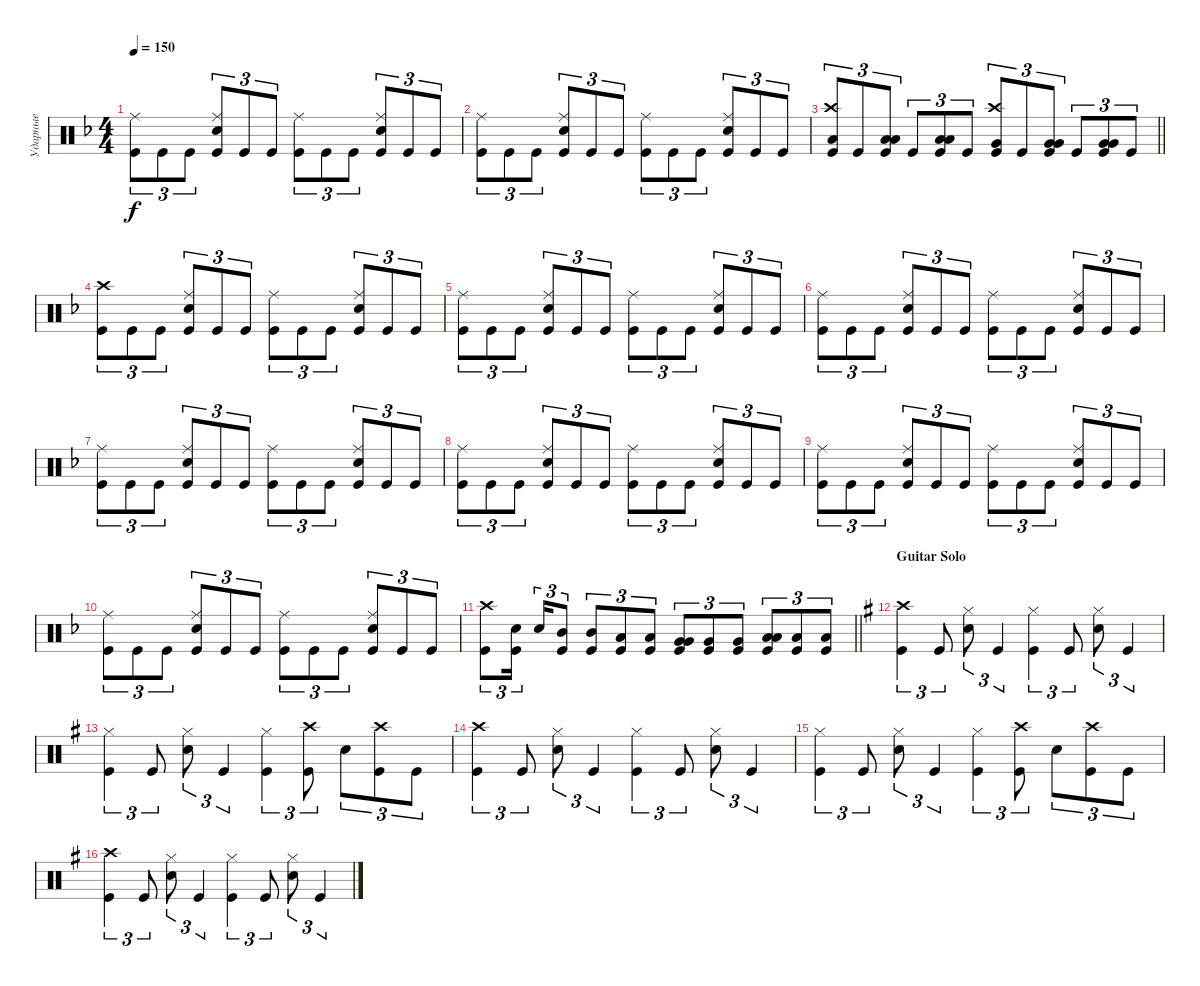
\track ("Ударные" "Ударные") {instrument percussion}
\staff {score}
\articulation defaults
\ts (4 4)
\tempo 150
\clef neutral
\ks dminor
("Kick (hit)" "Ride (middle)").8{tu (3 2) dy f} "Kick (hit)".8{tu (3 2)} "Kick (hit)".8{tu (3 2)} ("Snare (hit) 2" "Kick (hit)" "Ride (middle)").8{tu (3 2)} "Kick (hit)".8{tu (3 2)} "Kick (hit)".8{tu (3 2)} ("Kick (hit)" "Ride (middle)").8{tu (3 2)} "Kick (hit)".8{tu (3 2)} "Kick (hit)".8{tu (3 2)} ("Kick (hit)" "Snare (hit) 2" "Ride (middle)").8{tu (3 2)} "Kick (hit)".8{tu (3 2)} "Kick (hit)".8{tu (3 2)} |
("Kick (hit)" "Ride (middle)").8{tu (3 2)} "Kick (hit)".8{tu (3 2)} "Kick (hit)".8{tu (3 2)} ("Snare (hit) 2" "Kick (hit)" "Ride (middle)").8{tu (3 2)} "Kick (hit)".8{tu (3 2)} "Kick (hit)".8{tu (3 2)} ("Kick (hit)" "Ride (middle)").8{tu (3 2)} "Kick (hit)".8{tu (3 2)} "Kick (hit)".8{tu (3 2)} ("Kick (hit)" "Snare (hit) 2" "Ride (middle)").8{tu (3 2)} "Kick (hit)".8{tu (3 2)} "Kick (hit)".8{tu (3 2)} |
\barLineRight lightlight
("Kick (hit)" "Crash high (hit)" "Low Tom (hit)").8{tu (3 2)} "Kick (hit)".8{tu (3 2)} ("Kick (hit)" "Low Tom (hit)" "Low Tom (hit)").8{tu (3 2) bd 240} "Kick (hit)".8{tu (3 2)} ("Kick (hit)" "Low Tom (hit)" "Low Tom (hit)").8{tu (3 2) bd 240} "Kick (hit)".8{tu (3 2)} ("Kick (hit)" "Crash high (hit)" "Very Low Tom (hit)").8{tu (3 2)} "Kick (hit)".8{tu (3 2)} ("Kick (hit)" "Very Low Tom (hit)" "Very Low Tom (hit)").8{tu (3 2) bd 240} "Kick (hit)".8{tu (3 2)} ("Kick (hit)" "Very Low Tom (hit)" "Very Low Tom (hit)").8{tu (3 2) bd 240} "Kick (hit)".8{tu (3 2)} |
("Kick (hit)" "Crash high (hit)").8{tu (3 2)} "Kick (hit)".8{tu (3 2)} "Kick (hit)".8{tu (3 2)} ("Snare (hit) 2" "Kick (hit)" "Ride (middle)").8{tu (3 2)} "Kick (hit)".8{tu (3 2)} "Kick (hit)".8{tu (3 2)} ("Kick (hit)" "Ride (middle)").8{tu (3 2)} "Kick (hit)".8{tu (3 2)} "Kick (hit)".8{tu (3 2)} ("Kick (hit)" "Snare (hit) 2" "Ride (middle)").8{tu (3 2)} "Kick (hit)".8{tu (3 2)} "Kick (hit)".8{tu (3 2)} |
("Kick (hit)" "Ride (middle)").8{tu (3 2)} "Kick (hit)".8{tu (3 2)} "Kick (hit)".8{tu (3 2)} ("Snare (hit) 2" "Kick (hit)" "Ride (middle)").8{tu (3 2)} "Kick (hit)".8{tu (3 2)} "Kick (hit)".8{tu (3 2)} ("Kick (hit)" "Ride (middle)").8{tu (3 2)} "Kick (hit)".8{tu (3 2)} "Kick (hit)".8{tu (3 2)} ("Kick (hit)" "Snare (hit) 2" "Ride (middle)").8{tu (3 2)} "Kick (hit)".8{tu (3 2)} "Kick (hit)".8{tu (3 2)} |
("Kick (hit)" "Ride (middle)").8{tu (3 2)} "Kick (hit)".8{tu (3 2)} "Kick (hit)".8{tu (3 2)} ("Snare (hit) 2" "Kick (hit)" "Ride (middle)").8{tu (3 2)} "Kick (hit)".8{tu (3 2)} "Kick (hit)".8{tu (3 2)} ("Kick (hit)" "Ride (middle)").8{tu (3 2)} "Kick (hit)".8{tu (3 2)} "Kick (hit)".8{tu (3 2)} ("Kick (hit)" "Snare (hit) 2" "Ride (middle)").8{tu (3 2)} "Kick (hit)".8{tu (3 2)} "Kick (hit)".8{tu (3 2)} |
("Kick (hit)" "Ride (middle)").8{tu (3 2)} "Kick (hit)".8{tu (3 2)} "Kick (hit)".8{tu (3 2)} ("Snare (hit) 2" "Kick (hit)" "Ride (middle)").8{tu (3 2)} "Kick (hit)".8{tu (3 2)} "Kick (hit)".8{tu (3 2)} ("Kick (hit)" "Ride (middle)").8{tu (3 2)} "Kick (hit)".8{tu (3 2)} "Kick (hit)".8{tu (3 2)} ("Kick (hit)" "Snare (hit) 2" "Ride (middle)").8{tu (3 2)} "Kick (hit)".8{tu (3 2)} "Kick (hit)".8{tu (3 2)} |
("Kick (hit)" "Ride (middle)").8{tu (3 2)} "Kick (hit)".8{tu (3 2)} "Kick (hit)".8{tu (3 2)} ("Snare (hit) 2" "Kick (hit)" "Ride (middle)").8{tu (3 2)} "Kick (hit)".8{tu (3 2)} "Kick (hit)".8{tu (3 2)} ("Kick (hit)" "Ride (middle)").8{tu (3 2)} "Kick (hit)".8{tu (3 2)} "Kick (hit)".8{tu (3 2)} ("Kick (hit)" "Snare (hit) 2" "Ride (middle)").8{tu (3 2)} "Kick (hit)".8{tu (3 2)} "Kick (hit)".8{tu (3 2)} |
("Kick (hit)" "Ride (middle)").8{tu (3 2)} "Kick (hit)".8{tu (3 2)} "Kick (hit)".8{tu (3 2)} ("Snare (hit) 2" "Kick (hit)" "Ride (middle)").8{tu (3 2)} "Kick (hit)".8{tu (3 2)} "Kick (hit)".8{tu (3 2)} ("Kick (hit)" "Ride (middle)").8{tu (3 2)} "Kick (hit)".8{tu (3 2)} "Kick (hit)".8{tu (3 2)} ("Kick (hit)" "Snare (hit) 2" "Ride (middle)").8{tu (3 2)} "Kick (hit)".8{tu (3 2)} "Kick (hit)".8{tu (3 2)} |
("Kick (hit)" "Ride (middle)").8{tu (3 2)} "Kick (hit)".8{tu (3 2)} "Kick (hit)".8{tu (3 2)} ("Snare (hit) 2" "Kick (hit)" "Ride (middle)").8{tu (3 2)} "Kick (hit)".8{tu (3 2)} "Kick (hit)".8{tu (3 2)} ("Kick (hit)" "Ride (middle)").8{tu (3 2)} "Kick (hit)".8{tu (3 2)} "Kick (hit)".8{tu (3 2)} ("Kick (hit)" "Snare (hit) 2" "Ride (middle)").8{tu (3 2)} "Kick (hit)".8{tu (3 2)} "Kick (hit)".8{tu (3 2)} |
\barLineRight lightlight
("Kick (hit)" "Crash high (hit)").8{tu (3 2)} ("Kick (hit)" "Snare (hit) 2").16{tu (3 2) beam splitsecondary} "Snare (hit) 2".16{tu (3 2)} ("Mid Tom (hit)" "Kick (hit)").8{tu (3 2)} ("Mid Tom (hit)" "Kick (hit)").8{tu (3 2)} ("Low Tom (hit)" "Kick (hit)").8{tu (3 2)} ("Low Tom (hit)" "Kick (hit)").8{tu (3 2)} ("Kick (hit)" "Very Low Tom (hit)" "Very Low Tom (hit)").8{tu (3 2) bd 240} ("Kick (hit)" "Very Low Tom (hit)").8{tu (3 2)} ("Kick (hit)" "Very Low Tom (hit)").8{tu (3 2)} ("Kick (hit)" "Low Floor Tom (hit)" "Low Floor Tom (hit)").8{tu (3 2) bd 240} ("Kick (hit)" "Low Floor Tom (hit)").8{tu (3 2)} ("Kick (hit)" "Low Floor Tom (hit)").8{tu (3 2)} |
\section ("" "Guitar Solo")
\ks eminor
("Kick (hit)" "Crash high (hit)").4{tu (3 2)} "Kick (hit)".8{tu (3 2)} ("Snare (hit) 2" "Hi-Hat (closed)").8{tu (3 2)} "Kick (hit)".4{tu (3 2)} ("Kick (hit)" "Hi-Hat (closed)").4{tu (3 2)} "Kick (hit)".8{tu (3 2)} ("Snare (hit) 2" "Hi-Hat (closed)").8{tu (3 2)} "Kick (hit)".4{tu (3 2)} |
("Kick (hit)" "Hi-Hat (closed)").4{tu (3 2)} "Kick (hit)".8{tu (3 2)} ("Snare (hit) 2" "Hi-Hat (closed)").8{tu (3 2)} "Kick (hit)".4{tu (3 2)} ("Kick (hit)" "Hi-Hat (closed)").4{tu (3 2)} ("Kick (hit)" "Crash high (hit)").8{tu (3 2)} "Snare (hit) 2".8{tu (3 2)} ("Kick (hit)" "Crash high (hit)").8{tu (3 2)} "Kick (hit)".8{tu (3 2)} |
("Kick (hit)" "Crash high (hit)").4{tu (3 2)} "Kick (hit)".8{tu (3 2)} ("Snare (hit) 2" "Hi-Hat (closed)").8{tu (3 2)} "Kick (hit)".4{tu (3 2)} ("Kick (hit)" "Hi-Hat (closed)").4{tu (3 2)} "Kick (hit)".8{tu (3 2)} ("Snare (hit) 2" "Hi-Hat (closed)").8{tu (3 2)} "Kick (hit)".4{tu (3 2)} |
("Kick (hit)" "Hi-Hat (closed)").4{tu (3 2)} "Kick (hit)".8{tu (3 2)} ("Snare (hit) 2" "Hi-Hat (closed)").8{tu (3 2)} "Kick (hit)".4{tu (3 2)} ("Kick (hit)" "Hi-Hat (closed)").4{tu (3 2)} ("Kick (hit)" "Crash high (hit)").8{tu (3 2)} "Snare (hit) 2".8{tu (3 2)} ("Kick (hit)" "Crash high (hit)").8{tu (3 2)} "Kick (hit)".8{tu (3 2)} |
("Kick (hit)" "Crash high (hit)").4{tu (3 2)} "Kick (hit)".8{tu (3 2)} ("Snare (hit) 2" "Hi-Hat (closed)").8{tu (3 2)} "Kick (hit)".4{tu (3 2)} ("Kick (hit)" "Hi-Hat (closed)").4{tu (3 2)} "Kick (hit)".8{tu (3 2)} ("Snare (hit) 2" "Hi-Hat (closed)").8{tu (3 2)} "Kick (hit)".4{tu (3 2)}
